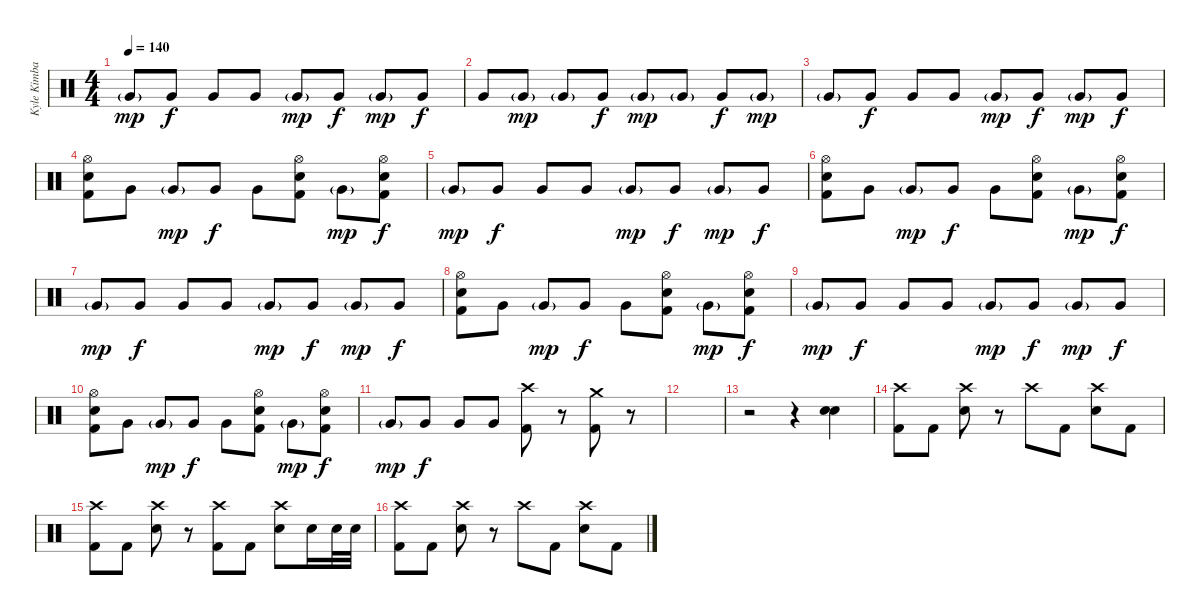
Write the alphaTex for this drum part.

\track ("Kyle Kimball" "Kyle Kimba") {instrument percussion}
\staff
\articulation defaults
\ts (4 4)
\tempo 140
\clef neutral
\ks c "Very Low Tom (hit)"{g}.8{dy mp} "Very Low Tom (hit)".8{dy f} "Very Low Tom (hit)".8 "Very Low Tom (hit)".8 "Very Low Tom (hit)"{g}.8{dy mp} "Very Low Tom (hit)".8{dy f} "Very Low Tom (hit)"{g}.8{dy mp} "Very Low Tom (hit)".8{dy f}
|
"Very Low Tom (hit)".8 "Very Low Tom (hit)"{g}.8{dy mp} "Very Low Tom (hit)"{g}.8 "Very Low Tom (hit)".8{dy f} "Very Low Tom (hit)"{g}.8{dy mp} "Very Low Tom (hit)"{g}.8 "Very Low Tom (hit)".8{dy f} "Very Low Tom (hit)"{g}.8{dy mp} |
"Very Low Tom (hit)"{g}.8 "Very Low Tom (hit)".8{dy f} "Very Low Tom (hit)".8 "Very Low Tom (hit)".8 "Very Low Tom (hit)"{g}.8{dy mp} "Very Low Tom (hit)".8{dy f} "Very Low Tom (hit)"{g}.8{dy mp} "Very Low Tom (hit)".8{dy f} |
("Kick (hit) 2" "Electric Snare (hit)" "Hi-Hat (open)").8 "Very Low Tom (hit)".8 "Very Low Tom (hit)"{g}.8{dy mp} "Very Low Tom (hit)".8{dy f} "Very Low Tom (hit)".8 ("Kick (hit) 2" "Electric Snare (hit)" "Hi-Hat (open)").8 "Very Low Tom (hit)"{g}.8{dy mp} ("Kick (hit) 2" "Electric Snare (hit)" "Hi-Hat (open)").8{dy f} |
"Very Low Tom (hit)"{g}.8{dy mp} "Very Low Tom (hit)".8{dy f} "Very Low Tom (hit)".8 "Very Low Tom (hit)".8 "Very Low Tom (hit)"{g}.8{dy mp} "Very Low Tom (hit)".8{dy f} "Very Low Tom (hit)"{g}.8{dy mp} "Very Low Tom (hit)".8{dy f} |
("Kick (hit) 2" "Electric Snare (hit)" "Hi-Hat (open)").8 "Very Low Tom (hit)".8 "Very Low Tom (hit)"{g}.8{dy mp} "Very Low Tom (hit)".8{dy f} "Very Low Tom (hit)".8 ("Kick (hit) 2" "Electric Snare (hit)" "Hi-Hat (open)").8 "Very Low Tom (hit)"{g}.8{dy mp} ("Kick (hit) 2" "Electric Snare (hit)" "Hi-Hat (open)").8{dy f} |
"Very Low Tom (hit)"{g}.8{dy mp} "Very Low Tom (hit)".8{dy f} "Very Low Tom (hit)".8 "Very Low Tom (hit)".8 "Very Low Tom (hit)"{g}.8{dy mp} "Very Low Tom (hit)".8{dy f} "Very Low Tom (hit)"{g}.8{dy mp} "Very Low Tom (hit)".8{dy f} |
("Kick (hit) 2" "Electric Snare (hit)" "Hi-Hat (open)").8 "Very Low Tom (hit)".8 "Very Low Tom (hit)"{g}.8{dy mp} "Very Low Tom (hit)".8{dy f} "Very Low Tom (hit)".8 ("Kick (hit) 2" "Electric Snare (hit)" "Hi-Hat (open)").8 "Very Low Tom (hit)"{g}.8{dy mp} ("Kick (hit) 2" "Electric Snare (hit)" "Hi-Hat (open)").8{dy f} |
"Very Low Tom (hit)"{g}.8{dy mp} "Very Low Tom (hit)".8{dy f} "Very Low Tom (hit)".8 "Very Low Tom (hit)".8 "Very Low Tom (hit)"{g}.8{dy mp} "Very Low Tom (hit)".8{dy f} "Very Low Tom (hit)"{g}.8{dy mp} "Very Low Tom (hit)".8{dy f} |
("Kick (hit) 2" "Electric Snare (hit)" "Hi-Hat (open)").8 "Very Low Tom (hit)".8 "Very Low Tom (hit)"{g}.8{dy mp} "Very Low Tom (hit)".8{dy f} "Very Low Tom (hit)".8 ("Kick (hit) 2" "Electric Snare (hit)" "Hi-Hat (open)").8 "Very Low Tom (hit)"{g}.8{dy mp} ("Kick (hit) 2" "Electric Snare (hit)" "Hi-Hat (open)").8{dy f} |
"Very Low Tom (hit)"{g}.8{dy mp} "Very Low Tom (hit)".8{dy f} "Very Low Tom (hit)".8 "Very Low Tom (hit)".8 ("Kick (hit) 2" "Crash high (hit)").8 r.8 ("Kick (hit) 2" "Crash medium (hit)").8 r.8 |
|
r.2 r.4 ("Electric Snare (hit)" "Electric Snare (hit)").4{bd 60} |
("Kick (hit) 2" "Crash high (hit)").8 "Kick (hit) 2".8 ("Electric Snare (hit)" "Crash high (hit)").8 r.8 "Crash high (hit)".8 "Kick (hit) 2".8 ("Electric Snare (hit)" "Crash high (hit)").8 "Kick (hit) 2".8 |
("Kick (hit) 2" "Crash high (hit)").8 "Kick (hit) 2".8 ("Electric Snare (hit)" "Crash high (hit)").8 r.8 ("Kick (hit) 2" "Crash high (hit)").8 "Kick (hit) 2".8 ("Electric Snare (hit)" "Crash high (hit)").8 "Electric Snare (hit)".16 "Electric Snare (hit)".32 "Electric Snare (hit)".32 |
("Kick (hit) 2" "Crash high (hit)").8 "Kick (hit) 2".8 ("Electric Snare (hit)" "Crash high (hit)").8 r.8 "Crash high (hit)".8 "Kick (hit) 2".8 ("Electric Snare (hit)" "Crash high (hit)").8 "Kick (hit) 2".8
